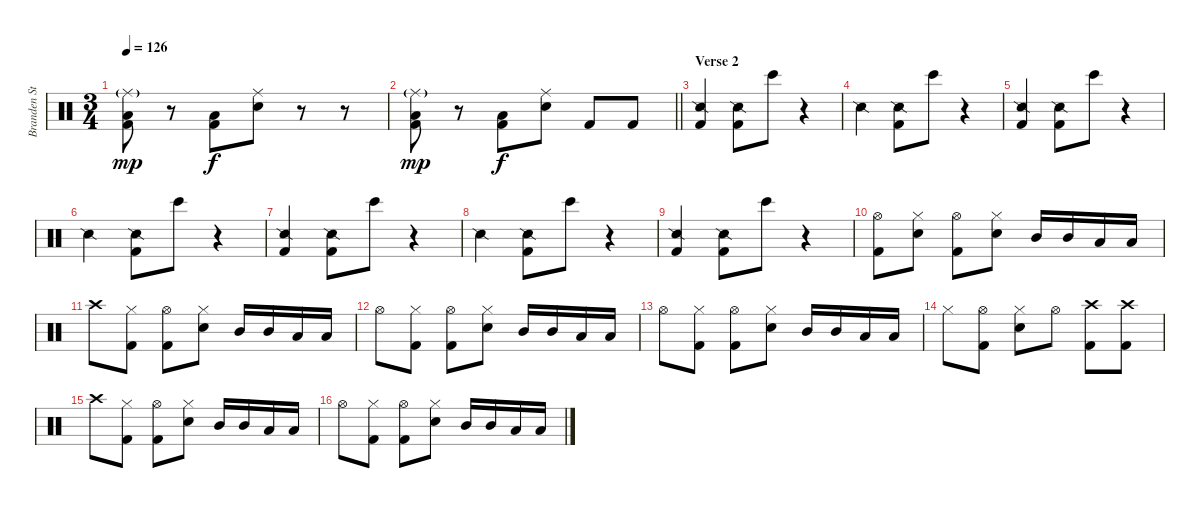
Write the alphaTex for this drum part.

\track ("Branden Steineckert [Drums]" "Branden St") {instrument percussion}
\staff {score}
\articulation defaults
\ts (3 4)
\tempo 126
\clef neutral
\ks c
("Ride (middle)"{g} "Low Floor Tom (hit)" "Kick (hit) 2").8{dy mp} r.8 ("Low Floor Tom (hit)" "Kick (hit) 2").8{dy f} ("Ride (middle)" "Electric Snare (hit)").8 r.8 r.8 |
\barLineRight lightlight
("Ride (middle)"{g} "Low Floor Tom (hit)" "Kick (hit) 2").8{dy mp} r.8 ("Low Floor Tom (hit)" "Kick (hit) 2").8{dy f} ("Ride (middle)" "Electric Snare (hit)").8 "Kick (hit) 2".8 "Kick (hit) 2".8 |
\section ("" "Verse 2")
("Snare (side stick) 2" "Kick (hit) 2").4 ("Snare (side stick) 2" "Kick (hit) 2").8 "Bongo High (hit)".8 r.4 |
"Snare (side stick) 2".4 ("Snare (side stick) 2" "Kick (hit) 2").8 "Bongo High (hit)".8 r.4 |
("Snare (side stick) 2" "Kick (hit) 2").4 ("Snare (side stick) 2" "Kick (hit) 2").8 "Bongo High (hit)".8 r.4 |
"Snare (side stick) 2".4 ("Snare (side stick) 2" "Kick (hit) 2").8 "Bongo High (hit)".8 r.4 |
("Snare (side stick) 2" "Kick (hit) 2").4 ("Snare (side stick) 2" "Kick (hit) 2").8 "Bongo High (hit)".8 r.4 |
"Snare (side stick) 2".4 ("Snare (side stick) 2" "Kick (hit) 2").8 "Bongo High (hit)".8 r.4 |
("Snare (side stick) 2" "Kick (hit) 2").4 ("Snare (side stick) 2" "Kick (hit) 2").8 "Bongo High (hit)".8 r.4 |
("Hi-Hat (open)" "Kick (hit) 2").8 ("Hi-Hat (closed)" "Electric Snare (hit)").8 ("Hi-Hat (open)" "Kick (hit) 2").8 ("Hi-Hat (closed)" "Electric Snare (hit)").8 "Mid Tom (hit)".16 "Mid Tom (hit)".16 "Low Tom (hit)".16 "Low Tom (hit)".16 |
"Crash high (hit)".8 ("Hi-Hat (closed)" "Kick (hit) 2").8 ("Hi-Hat (open)" "Kick (hit) 2").8 ("Hi-Hat (closed)" "Electric Snare (hit)").8 "Mid Tom (hit)".16 "Mid Tom (hit)".16 "Low Tom (hit)".16 "Low Tom (hit)".16 |
"Hi-Hat (open)".8 ("Hi-Hat (closed)" "Kick (hit) 2").8 ("Hi-Hat (open)" "Kick (hit) 2").8 ("Hi-Hat (closed)" "Electric Snare (hit)").8 "Mid Tom (hit)".16 "Mid Tom (hit)".16 "Low Tom (hit)".16 "Low Tom (hit)".16 |
"Hi-Hat (open)".8 ("Hi-Hat (closed)" "Kick (hit) 2").8 ("Hi-Hat (open)" "Kick (hit) 2").8 ("Hi-Hat (closed)" "Electric Snare (hit)").8 "Mid Tom (hit)".16 "Mid Tom (hit)".16 "Low Tom (hit)".16 "Low Tom (hit)".16 |
"Hi-Hat (closed)".8 ("Hi-Hat (open)" "Kick (hit) 2").8 ("Hi-Hat (closed)" "Electric Snare (hit)").8 "Hi-Hat (open)".8 ("Crash high (hit)" "Kick (hit) 2").8 ("Crash high (hit)" "Kick (hit) 2").8 |
"Crash high (hit)".8 ("Hi-Hat (closed)" "Kick (hit) 2").8 ("Hi-Hat (open)" "Kick (hit) 2").8 ("Hi-Hat (closed)" "Electric Snare (hit)").8 "Mid Tom (hit)".16 "Mid Tom (hit)".16 "Low Tom (hit)".16 "Low Tom (hit)".16 |
"Hi-Hat (open)".8 ("Hi-Hat (closed)" "Kick (hit) 2").8 ("Hi-Hat (open)" "Kick (hit) 2").8 ("Hi-Hat (closed)" "Electric Snare (hit)").8 "Mid Tom (hit)".16 "Mid Tom (hit)".16 "Low Tom (hit)".16 "Low Tom (hit)".16
